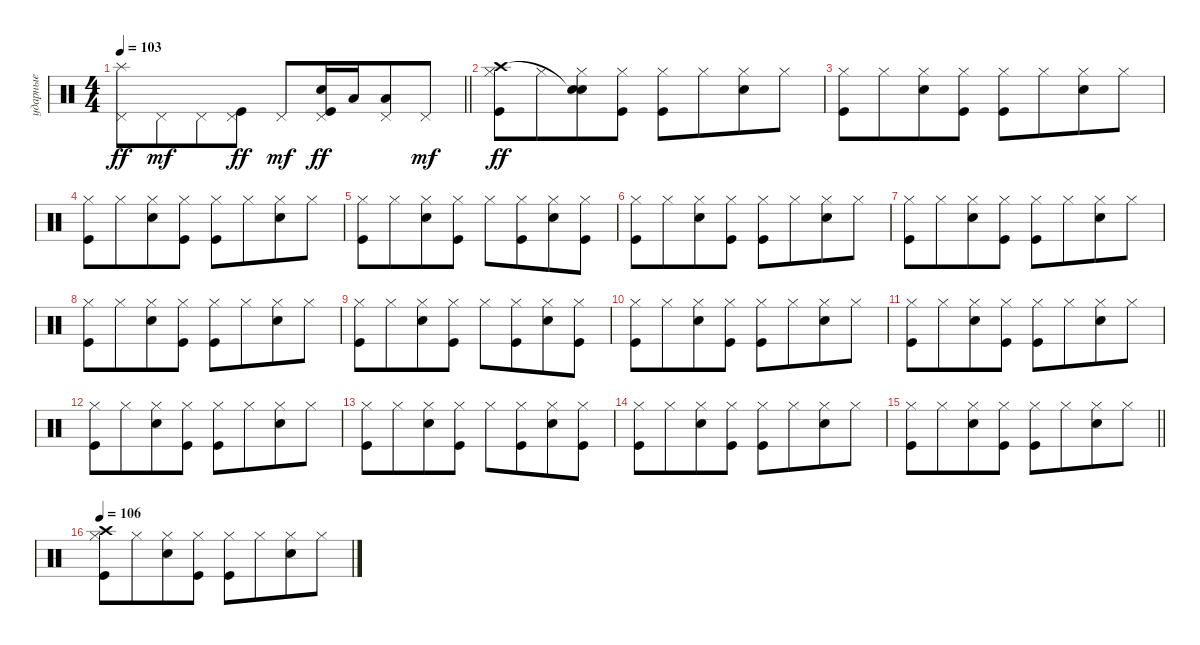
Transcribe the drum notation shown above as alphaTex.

\track ("ударные" "ударные") {instrument percussion}
\staff {score}
\articulation defaults
\ts (4 4)
\tempo 103
\clef neutral
\barLineRight lightlight
\ks aminor
("Pedal Hi-Hat (hit)" "Splash (hit)").8{dy ff} "Pedal Hi-Hat (hit)".8{dy mf beam merge} "Pedal Hi-Hat (hit)".8 ("Pedal Hi-Hat (hit)" "Kick (hit)").8{dy ff} "Pedal Hi-Hat (hit)".8{dy mf beam merge} ("Pedal Hi-Hat (hit)" "Snare (hit) 2" "Kick (hit)").16{dy ff beam merge} "Low Tom (hit)".16{beam merge} ("Pedal Hi-Hat (hit)" "Low Tom (hit)").8 "Pedal Hi-Hat (hit)".8{dy mf} |
\section ("" "")
("Hi-Hat (closed)" "Crash high (hit)" "Kick (hit)").8{dy ff} "Hi-Hat (closed)".8{beam merge} ("Hi-Hat (closed)" "Snare (hit)"{t} "Snare (hit) 2").8 ("Hi-Hat (closed)" "Kick (hit)").8 ("Hi-Hat (closed)" "Kick (hit)").8 "Hi-Hat (closed)".8{beam merge} ("Hi-Hat (closed)" "Snare (hit) 2").8 "Hi-Hat (closed)".8 |
("Hi-Hat (closed)" "Kick (hit)").8 "Hi-Hat (closed)".8{beam merge} ("Hi-Hat (closed)" "Snare (hit) 2").8 ("Hi-Hat (closed)" "Kick (hit)").8 ("Hi-Hat (closed)" "Kick (hit)").8 "Hi-Hat (closed)".8{beam merge} ("Hi-Hat (closed)" "Snare (hit) 2").8 "Hi-Hat (closed)".8 |
("Hi-Hat (closed)" "Kick (hit)").8 "Hi-Hat (closed)".8{beam merge} ("Hi-Hat (closed)" "Snare (hit) 2").8 ("Hi-Hat (closed)" "Kick (hit)").8 ("Hi-Hat (closed)" "Kick (hit)").8 "Hi-Hat (closed)".8{beam merge} ("Hi-Hat (closed)" "Snare (hit) 2").8 "Hi-Hat (closed)".8 |
("Hi-Hat (closed)" "Kick (hit)").8 "Hi-Hat (closed)".8{beam merge} ("Hi-Hat (closed)" "Snare (hit) 2").8 ("Hi-Hat (closed)" "Kick (hit)").8 "Hi-Hat (closed)".8 ("Hi-Hat (closed)" "Kick (hit)").8{beam merge} ("Hi-Hat (closed)" "Snare (hit) 2").8 ("Hi-Hat (closed)" "Kick (hit)").8 |
("Hi-Hat (closed)" "Kick (hit)").8 "Hi-Hat (closed)".8{beam merge} ("Hi-Hat (closed)" "Snare (hit) 2").8 ("Hi-Hat (closed)" "Kick (hit)").8 ("Hi-Hat (closed)" "Kick (hit)").8 "Hi-Hat (closed)".8{beam merge} ("Hi-Hat (closed)" "Snare (hit) 2").8 "Hi-Hat (closed)".8 |
("Hi-Hat (closed)" "Kick (hit)").8 "Hi-Hat (closed)".8{beam merge} ("Hi-Hat (closed)" "Snare (hit) 2").8 ("Hi-Hat (closed)" "Kick (hit)").8 ("Hi-Hat (closed)" "Kick (hit)").8 "Hi-Hat (closed)".8{beam merge} ("Hi-Hat (closed)" "Snare (hit) 2").8 "Hi-Hat (closed)".8 |
("Hi-Hat (closed)" "Kick (hit)").8 "Hi-Hat (closed)".8{beam merge} ("Hi-Hat (closed)" "Snare (hit) 2").8 ("Hi-Hat (closed)" "Kick (hit)").8 ("Hi-Hat (closed)" "Kick (hit)").8 "Hi-Hat (closed)".8{beam merge} ("Hi-Hat (closed)" "Snare (hit) 2").8 "Hi-Hat (closed)".8 |
("Hi-Hat (closed)" "Kick (hit)").8 "Hi-Hat (closed)".8{beam merge} ("Hi-Hat (closed)" "Snare (hit) 2").8 ("Hi-Hat (closed)" "Kick (hit)").8 "Hi-Hat (closed)".8 ("Hi-Hat (closed)" "Kick (hit)").8{beam merge} ("Hi-Hat (closed)" "Snare (hit) 2").8 ("Hi-Hat (closed)" "Kick (hit)").8 |
("Hi-Hat (closed)" "Kick (hit)").8 "Hi-Hat (closed)".8{beam merge} ("Hi-Hat (closed)" "Snare (hit) 2").8 ("Hi-Hat (closed)" "Kick (hit)").8 ("Hi-Hat (closed)" "Kick (hit)").8 "Hi-Hat (closed)".8{beam merge} ("Hi-Hat (closed)" "Snare (hit) 2").8 "Hi-Hat (closed)".8 |
("Hi-Hat (closed)" "Kick (hit)").8 "Hi-Hat (closed)".8{beam merge} ("Hi-Hat (closed)" "Snare (hit) 2").8 ("Hi-Hat (closed)" "Kick (hit)").8 ("Hi-Hat (closed)" "Kick (hit)").8 "Hi-Hat (closed)".8{beam merge} ("Hi-Hat (closed)" "Snare (hit) 2").8 "Hi-Hat (closed)".8 |
("Hi-Hat (closed)" "Kick (hit)").8 "Hi-Hat (closed)".8{beam merge} ("Hi-Hat (closed)" "Snare (hit) 2").8 ("Hi-Hat (closed)" "Kick (hit)").8 ("Hi-Hat (closed)" "Kick (hit)").8 "Hi-Hat (closed)".8{beam merge} ("Hi-Hat (closed)" "Snare (hit) 2").8 "Hi-Hat (closed)".8 |
("Hi-Hat (closed)" "Kick (hit)").8 "Hi-Hat (closed)".8{beam merge} ("Hi-Hat (closed)" "Snare (hit) 2").8 ("Hi-Hat (closed)" "Kick (hit)").8 "Hi-Hat (closed)".8 ("Hi-Hat (closed)" "Kick (hit)").8{beam merge} ("Hi-Hat (closed)" "Snare (hit) 2").8 ("Hi-Hat (closed)" "Kick (hit)").8 |
("Hi-Hat (closed)" "Kick (hit)").8 "Hi-Hat (closed)".8{beam merge} ("Hi-Hat (closed)" "Snare (hit) 2").8 ("Hi-Hat (closed)" "Kick (hit)").8 ("Hi-Hat (closed)" "Kick (hit)").8 "Hi-Hat (closed)".8{beam merge} ("Hi-Hat (closed)" "Snare (hit) 2").8 "Hi-Hat (closed)".8 |
\barLineRight lightlight
("Hi-Hat (closed)" "Kick (hit)").8 "Hi-Hat (closed)".8{beam merge} ("Hi-Hat (closed)" "Snare (hit) 2").8 ("Hi-Hat (closed)" "Kick (hit)").8 ("Hi-Hat (closed)" "Kick (hit)").8 "Hi-Hat (closed)".8{beam merge} ("Hi-Hat (closed)" "Snare (hit) 2").8 "Hi-Hat (closed)".8 |
\section ("" "")
\tempo 106
("Hi-Hat (closed)" "Crash high (hit)" "Kick (hit)").8 "Hi-Hat (closed)".8{beam merge} ("Hi-Hat (closed)" "Snare (hit) 2").8 ("Hi-Hat (closed)" "Kick (hit)").8 ("Hi-Hat (closed)" "Kick (hit)").8 "Hi-Hat (closed)".8{beam merge} ("Hi-Hat (closed)" "Snare (hit) 2").8 "Hi-Hat (closed)".8
